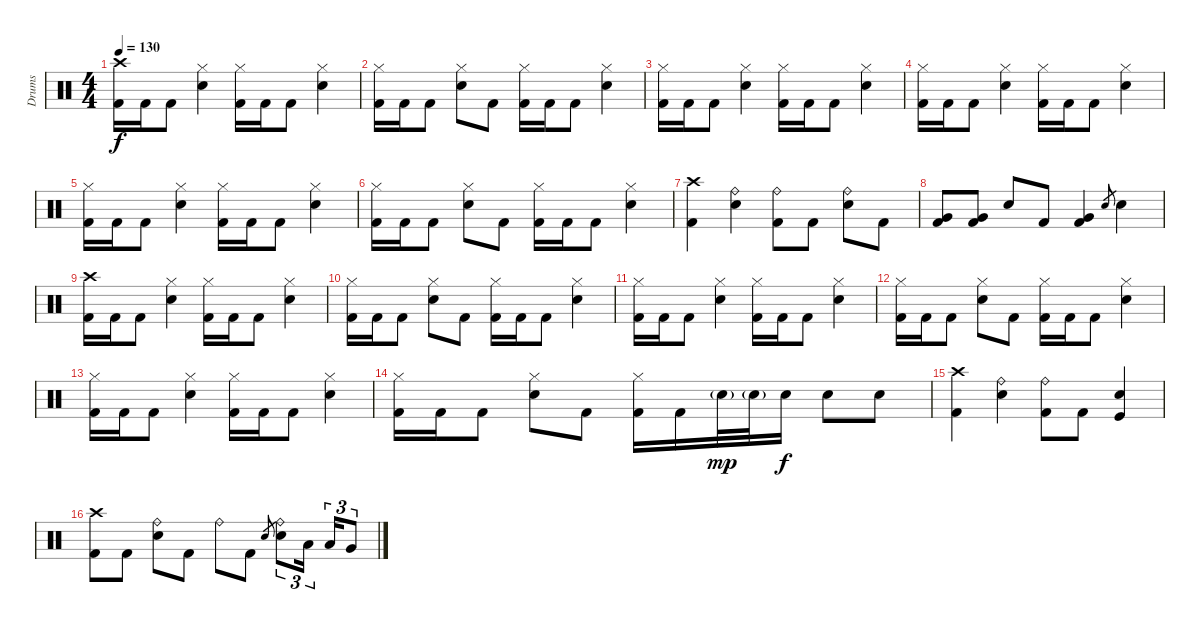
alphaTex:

\track ("Drums" "Drums") {instrument percussion}
\staff {score}
\articulation defaults
\ts (4 4)
\tempo 130
\clef neutral
\ks c
("Crash high (hit)" "Kick (hit) 2").16{dy f} "Kick (hit) 2".16 "Kick (hit) 2".8 ("Hi-Hat (closed)" "Electric Snare (hit)").4 ("Hi-Hat (closed)" "Kick (hit) 2").16 "Kick (hit) 2".16 "Kick (hit) 2".8 ("Hi-Hat (closed)" "Electric Snare (hit)").4 |
("Hi-Hat (closed)" "Kick (hit) 2").16 "Kick (hit) 2".16 "Kick (hit) 2".8 ("Hi-Hat (closed)" "Electric Snare (hit)").8 "Kick (hit) 2".8 ("Hi-Hat (closed)" "Kick (hit) 2").16 "Kick (hit) 2".16 "Kick (hit) 2".8 ("Hi-Hat (closed)" "Electric Snare (hit)").4 |
("Hi-Hat (closed)" "Kick (hit) 2").16 "Kick (hit) 2".16 "Kick (hit) 2".8 ("Hi-Hat (closed)" "Electric Snare (hit)").4 ("Hi-Hat (closed)" "Kick (hit) 2").16 "Kick (hit) 2".16 "Kick (hit) 2".8 ("Hi-Hat (closed)" "Electric Snare (hit)").4 |
("Hi-Hat (closed)" "Kick (hit) 2").16 "Kick (hit) 2".16 "Kick (hit) 2".8 ("Hi-Hat (closed)" "Electric Snare (hit)").4 ("Hi-Hat (closed)" "Kick (hit) 2").16 "Kick (hit) 2".16 "Kick (hit) 2".8 ("Hi-Hat (closed)" "Electric Snare (hit)").4 |
("Hi-Hat (closed)" "Kick (hit) 2").16 "Kick (hit) 2".16 "Kick (hit) 2".8 ("Hi-Hat (closed)" "Electric Snare (hit)").4 ("Hi-Hat (closed)" "Kick (hit) 2").16 "Kick (hit) 2".16 "Kick (hit) 2".8 ("Hi-Hat (closed)" "Electric Snare (hit)").4 |
("Hi-Hat (closed)" "Kick (hit) 2").16 "Kick (hit) 2".16 "Kick (hit) 2".8 ("Hi-Hat (closed)" "Electric Snare (hit)").8 "Kick (hit) 2".8 ("Hi-Hat (closed)" "Kick (hit) 2").16 "Kick (hit) 2".16 "Kick (hit) 2".8 ("Hi-Hat (closed)" "Electric Snare (hit)").4 |
("Crash high (hit)" "Kick (hit) 2").4 ("Ride (bell)" "Electric Snare (hit)").4 ("Ride (bell)" "Kick (hit) 2").8 "Kick (hit) 2".8 ("Ride (bell)" "Electric Snare (hit)").8 "Kick (hit) 2".8 |
("Very Low Tom (hit)" "Kick (hit) 2").8 ("Very Low Tom (hit)" "Kick (hit) 2").8 "Electric Snare (hit)".8 "Kick (hit) 2".8 ("Very Low Tom (hit)" "Kick (hit) 2").4 "Electric Snare (hit)".8{gr} "Electric Snare (hit)".4 |
("Crash high (hit)" "Kick (hit) 2").16 "Kick (hit) 2".16 "Kick (hit) 2".8 ("Hi-Hat (closed)" "Electric Snare (hit)").4 ("Hi-Hat (closed)" "Kick (hit) 2").16 "Kick (hit) 2".16 "Kick (hit) 2".8 ("Hi-Hat (closed)" "Electric Snare (hit)").4 |
("Hi-Hat (closed)" "Kick (hit) 2").16 "Kick (hit) 2".16 "Kick (hit) 2".8 ("Hi-Hat (closed)" "Electric Snare (hit)").8 "Kick (hit) 2".8 ("Hi-Hat (closed)" "Kick (hit) 2").16 "Kick (hit) 2".16 "Kick (hit) 2".8 ("Hi-Hat (closed)" "Electric Snare (hit)").4 |
("Hi-Hat (closed)" "Kick (hit) 2").16 "Kick (hit) 2".16 "Kick (hit) 2".8 ("Hi-Hat (closed)" "Electric Snare (hit)").4 ("Hi-Hat (closed)" "Kick (hit) 2").16 "Kick (hit) 2".16 "Kick (hit) 2".8 ("Hi-Hat (closed)" "Electric Snare (hit)").4 |
("Hi-Hat (closed)" "Kick (hit) 2").16 "Kick (hit) 2".16 "Kick (hit) 2".8 ("Hi-Hat (closed)" "Electric Snare (hit)").8 "Kick (hit) 2".8 ("Hi-Hat (closed)" "Kick (hit) 2").16 "Kick (hit) 2".16 "Kick (hit) 2".8 ("Hi-Hat (closed)" "Electric Snare (hit)").4 |
("Hi-Hat (closed)" "Kick (hit) 2").16 "Kick (hit) 2".16 "Kick (hit) 2".8 ("Hi-Hat (closed)" "Electric Snare (hit)").4 ("Hi-Hat (closed)" "Kick (hit) 2").16 "Kick (hit) 2".16 "Kick (hit) 2".8 ("Hi-Hat (closed)" "Electric Snare (hit)").4 |
("Hi-Hat (closed)" "Kick (hit) 2").16 "Kick (hit) 2".16 "Kick (hit) 2".8 ("Hi-Hat (closed)" "Electric Snare (hit)").8 "Kick (hit) 2".8 ("Hi-Hat (closed)" "Kick (hit) 2").16 "Kick (hit) 2".16 "Electric Snare (hit)"{g}.32{dy mp} "Electric Snare (hit)"{g}.32 "Electric Snare (hit)".16{dy f} "Electric Snare (hit)".8 "Electric Snare (hit)".8 |
("Crash high (hit)" "Kick (hit) 2").4 ("Ride (bell)" "Electric Snare (hit)").4 ("Ride (bell)" "Kick (hit) 2").8 "Kick (hit) 2".8 ("Kick (hit)" "Electric Snare (hit)").4 |
("Crash high (hit)" "Kick (hit) 2").8 "Kick (hit) 2".8 ("Ride (bell)" "Electric Snare (hit)").8 "Kick (hit) 2".8 "Ride (bell)".8 "Kick (hit) 2".8 "Electric Snare (hit)".8{gr} ("Ride (bell)" "Electric Snare (hit)").8{tu (3 2)} "Low Tom (hit)".16{tu (3 2)} "Low Tom (hit)".16{tu (3 2)} "Very Low Tom (hit)".8{tu (3 2)}
